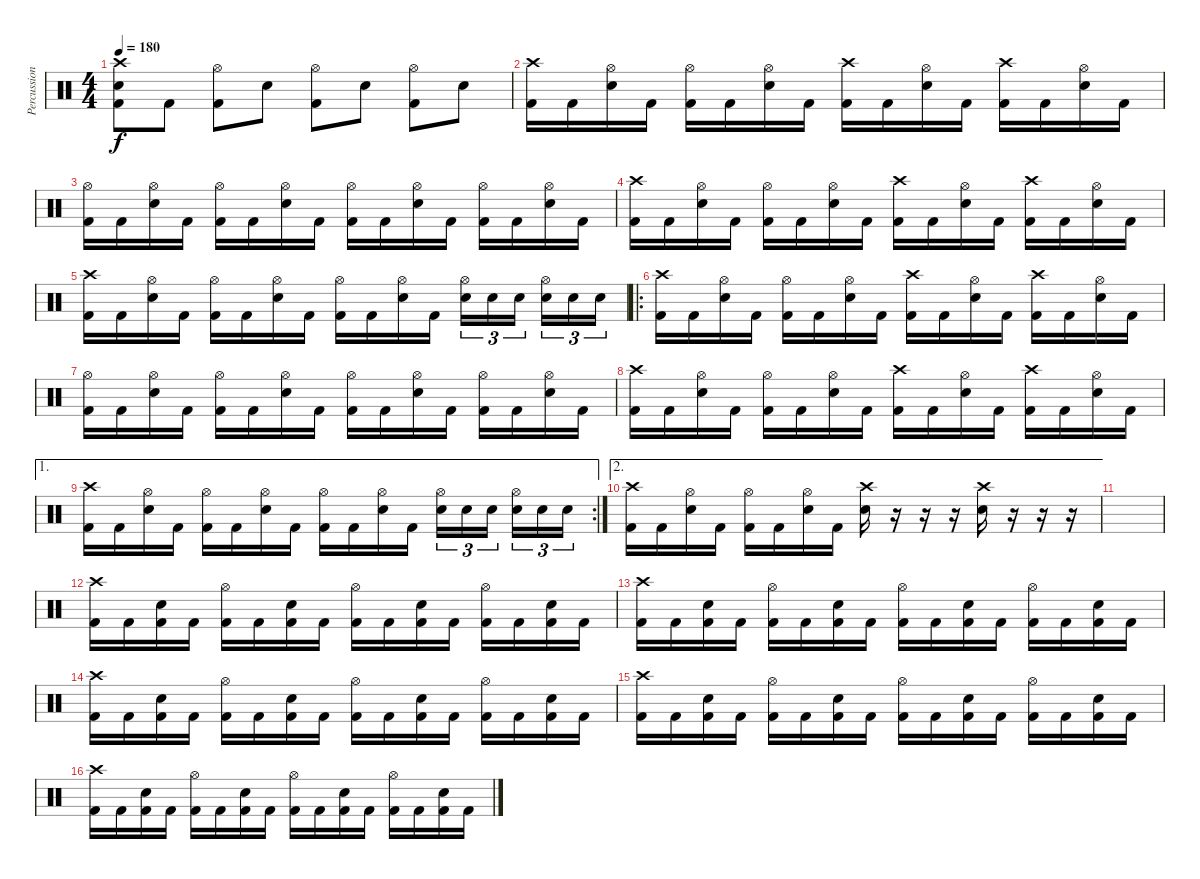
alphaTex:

\track ("Percussion" "Percussion") {instrument percussion}
\staff {score}
\articulation defaults
\ts (4 4)
\tempo 180
\clef neutral
\ks c
("Electric Snare (hit)" "Kick (hit) 2" "Crash high (hit)").8{dy f} "Kick (hit) 2".8 ("Kick (hit) 2" "Hi-Hat (open)").8 "Electric Snare (hit)".8 ("Kick (hit) 2" "Hi-Hat (open)").8 "Electric Snare (hit)".8 ("Kick (hit) 2" "Hi-Hat (open)").8 "Electric Snare (hit)".8 |
("Crash high (hit)" "Kick (hit) 2").16 "Kick (hit) 2".16 ("Hi-Hat (open)" "Electric Snare (hit)").16 "Kick (hit) 2".16 ("Hi-Hat (open)" "Kick (hit) 2").16 "Kick (hit) 2".16 ("Hi-Hat (open)" "Electric Snare (hit)").16 "Kick (hit) 2".16 ("Crash high (hit)" "Kick (hit) 2").16 "Kick (hit) 2".16 ("Hi-Hat (open)" "Electric Snare (hit)").16 "Kick (hit) 2".16 ("Crash high (hit)" "Kick (hit) 2").16 "Kick (hit) 2".16 ("Hi-Hat (open)" "Electric Snare (hit)").16 "Kick (hit) 2".16 |
("Hi-Hat (open)" "Kick (hit) 2").16 "Kick (hit) 2".16 ("Hi-Hat (open)" "Electric Snare (hit)").16 "Kick (hit) 2".16 ("Hi-Hat (open)" "Kick (hit) 2").16 "Kick (hit) 2".16 ("Hi-Hat (open)" "Electric Snare (hit)").16 "Kick (hit) 2".16 ("Hi-Hat (open)" "Kick (hit) 2").16 "Kick (hit) 2".16 ("Hi-Hat (open)" "Electric Snare (hit)").16 "Kick (hit) 2".16 ("Hi-Hat (open)" "Kick (hit) 2").16 "Kick (hit) 2".16 ("Hi-Hat (open)" "Electric Snare (hit)").16 "Kick (hit) 2".16 |
("Crash high (hit)" "Kick (hit) 2").16 "Kick (hit) 2".16 ("Hi-Hat (open)" "Electric Snare (hit)").16 "Kick (hit) 2".16 ("Hi-Hat (open)" "Kick (hit) 2").16 "Kick (hit) 2".16 ("Hi-Hat (open)" "Electric Snare (hit)").16 "Kick (hit) 2".16 ("Crash high (hit)" "Kick (hit) 2").16 "Kick (hit) 2".16 ("Hi-Hat (open)" "Electric Snare (hit)").16 "Kick (hit) 2".16 ("Crash high (hit)" "Kick (hit) 2").16 "Kick (hit) 2".16 ("Hi-Hat (open)" "Electric Snare (hit)").16 "Kick (hit) 2".16 |
("Crash high (hit)" "Kick (hit) 2").16 "Kick (hit) 2".16 ("Hi-Hat (open)" "Electric Snare (hit)").16 "Kick (hit) 2".16 ("Hi-Hat (open)" "Kick (hit) 2").16 "Kick (hit) 2".16 ("Hi-Hat (open)" "Electric Snare (hit)").16 "Kick (hit) 2".16 ("Hi-Hat (open)" "Kick (hit) 2").16 "Kick (hit) 2".16 ("Hi-Hat (open)" "Electric Snare (hit)").16 "Kick (hit) 2".16 ("Hi-Hat (open)" "Electric Snare (hit)").16{tu (3 2)} "Electric Snare (hit)".16{tu (3 2)} "Electric Snare (hit)".16{tu (3 2)} ("Hi-Hat (open)" "Electric Snare (hit)").16{tu (3 2)} "Electric Snare (hit)".16{tu (3 2)} "Electric Snare (hit)".16{tu (3 2)} |
\ro
("Crash high (hit)" "Kick (hit) 2").16 "Kick (hit) 2".16 ("Hi-Hat (open)" "Electric Snare (hit)").16 "Kick (hit) 2".16 ("Hi-Hat (open)" "Kick (hit) 2").16 "Kick (hit) 2".16 ("Hi-Hat (open)" "Electric Snare (hit)").16 "Kick (hit) 2".16 ("Crash high (hit)" "Kick (hit) 2").16 "Kick (hit) 2".16 ("Hi-Hat (open)" "Electric Snare (hit)").16 "Kick (hit) 2".16 ("Crash high (hit)" "Kick (hit) 2").16 "Kick (hit) 2".16 ("Hi-Hat (open)" "Electric Snare (hit)").16 "Kick (hit) 2".16 |
("Hi-Hat (open)" "Kick (hit) 2").16 "Kick (hit) 2".16 ("Hi-Hat (open)" "Electric Snare (hit)").16 "Kick (hit) 2".16 ("Hi-Hat (open)" "Kick (hit) 2").16 "Kick (hit) 2".16 ("Hi-Hat (open)" "Electric Snare (hit)").16 "Kick (hit) 2".16 ("Hi-Hat (open)" "Kick (hit) 2").16 "Kick (hit) 2".16 ("Hi-Hat (open)" "Electric Snare (hit)").16 "Kick (hit) 2".16 ("Hi-Hat (open)" "Kick (hit) 2").16 "Kick (hit) 2".16 ("Hi-Hat (open)" "Electric Snare (hit)").16 "Kick (hit) 2".16 |
("Crash high (hit)" "Kick (hit) 2").16 "Kick (hit) 2".16 ("Hi-Hat (open)" "Electric Snare (hit)").16 "Kick (hit) 2".16 ("Hi-Hat (open)" "Kick (hit) 2").16 "Kick (hit) 2".16 ("Hi-Hat (open)" "Electric Snare (hit)").16 "Kick (hit) 2".16 ("Crash high (hit)" "Kick (hit) 2").16 "Kick (hit) 2".16 ("Hi-Hat (open)" "Electric Snare (hit)").16 "Kick (hit) 2".16 ("Crash high (hit)" "Kick (hit) 2").16 "Kick (hit) 2".16 ("Hi-Hat (open)" "Electric Snare (hit)").16 "Kick (hit) 2".16 |
\ae 1
\rc 2
("Crash high (hit)" "Kick (hit) 2").16 "Kick (hit) 2".16 ("Hi-Hat (open)" "Electric Snare (hit)").16 "Kick (hit) 2".16 ("Hi-Hat (open)" "Kick (hit) 2").16 "Kick (hit) 2".16 ("Hi-Hat (open)" "Electric Snare (hit)").16 "Kick (hit) 2".16 ("Hi-Hat (open)" "Kick (hit) 2").16 "Kick (hit) 2".16 ("Hi-Hat (open)" "Electric Snare (hit)").16 "Kick (hit) 2".16 ("Hi-Hat (open)" "Electric Snare (hit)").16{tu (3 2)} "Electric Snare (hit)".16{tu (3 2)} "Electric Snare (hit)".16{tu (3 2)} ("Hi-Hat (open)" "Electric Snare (hit)").16{tu (3 2)} "Electric Snare (hit)".16{tu (3 2)} "Electric Snare (hit)".16{tu (3 2)} |
\ae 2
("Crash high (hit)" "Kick (hit) 2").16 "Kick (hit) 2".16 ("Hi-Hat (open)" "Electric Snare (hit)").16 "Kick (hit) 2".16 ("Hi-Hat (open)" "Kick (hit) 2").16 "Kick (hit) 2".16 ("Hi-Hat (open)" "Electric Snare (hit)").16 "Kick (hit) 2".16 ("Crash high (hit)" "Electric Snare (hit)").16 r.16 r.16 r.16 ("Crash high (hit)" "Electric Snare (hit)").16 r.16 r.16 r.16 |
|
("Crash high (hit)" "Kick (hit) 2").16 "Kick (hit) 2".16 ("Electric Snare (hit)" "Kick (hit) 2").16 "Kick (hit) 2".16 ("Hi-Hat (open)" "Kick (hit) 2").16 "Kick (hit) 2".16 ("Electric Snare (hit)" "Kick (hit) 2").16 "Kick (hit) 2".16 ("Hi-Hat (open)" "Kick (hit) 2").16 "Kick (hit) 2".16 ("Electric Snare (hit)" "Kick (hit) 2").16 "Kick (hit) 2".16 ("Hi-Hat (open)" "Kick (hit) 2").16 "Kick (hit) 2".16 ("Electric Snare (hit)" "Kick (hit) 2").16 "Kick (hit) 2".16 |
("Crash high (hit)" "Kick (hit) 2").16 "Kick (hit) 2".16 ("Electric Snare (hit)" "Kick (hit) 2").16 "Kick (hit) 2".16 ("Hi-Hat (open)" "Kick (hit) 2").16 "Kick (hit) 2".16 ("Electric Snare (hit)" "Kick (hit) 2").16 "Kick (hit) 2".16 ("Hi-Hat (open)" "Kick (hit) 2").16 "Kick (hit) 2".16 ("Electric Snare (hit)" "Kick (hit) 2").16 "Kick (hit) 2".16 ("Hi-Hat (open)" "Kick (hit) 2").16 "Kick (hit) 2".16 ("Electric Snare (hit)" "Kick (hit) 2").16 "Kick (hit) 2".16 |
("Crash high (hit)" "Kick (hit) 2").16 "Kick (hit) 2".16 ("Electric Snare (hit)" "Kick (hit) 2").16 "Kick (hit) 2".16 ("Hi-Hat (open)" "Kick (hit) 2").16 "Kick (hit) 2".16 ("Electric Snare (hit)" "Kick (hit) 2").16 "Kick (hit) 2".16 ("Hi-Hat (open)" "Kick (hit) 2").16 "Kick (hit) 2".16 ("Electric Snare (hit)" "Kick (hit) 2").16 "Kick (hit) 2".16 ("Hi-Hat (open)" "Kick (hit) 2").16 "Kick (hit) 2".16 ("Electric Snare (hit)" "Kick (hit) 2").16 "Kick (hit) 2".16 |
("Crash high (hit)" "Kick (hit) 2").16 "Kick (hit) 2".16 ("Electric Snare (hit)" "Kick (hit) 2").16 "Kick (hit) 2".16 ("Hi-Hat (open)" "Kick (hit) 2").16 "Kick (hit) 2".16 ("Electric Snare (hit)" "Kick (hit) 2").16 "Kick (hit) 2".16 ("Hi-Hat (open)" "Kick (hit) 2").16 "Kick (hit) 2".16 ("Electric Snare (hit)" "Kick (hit) 2").16 "Kick (hit) 2".16 ("Hi-Hat (open)" "Kick (hit) 2").16 "Kick (hit) 2".16 ("Electric Snare (hit)" "Kick (hit) 2").16 "Kick (hit) 2".16 |
("Crash high (hit)" "Kick (hit) 2").16 "Kick (hit) 2".16 ("Electric Snare (hit)" "Kick (hit) 2").16 "Kick (hit) 2".16 ("Hi-Hat (open)" "Kick (hit) 2").16 "Kick (hit) 2".16 ("Electric Snare (hit)" "Kick (hit) 2").16 "Kick (hit) 2".16 ("Hi-Hat (open)" "Kick (hit) 2").16 "Kick (hit) 2".16 ("Electric Snare (hit)" "Kick (hit) 2").16 "Kick (hit) 2".16 ("Hi-Hat (open)" "Kick (hit) 2").16 "Kick (hit) 2".16 ("Electric Snare (hit)" "Kick (hit) 2").16 "Kick (hit) 2".16
